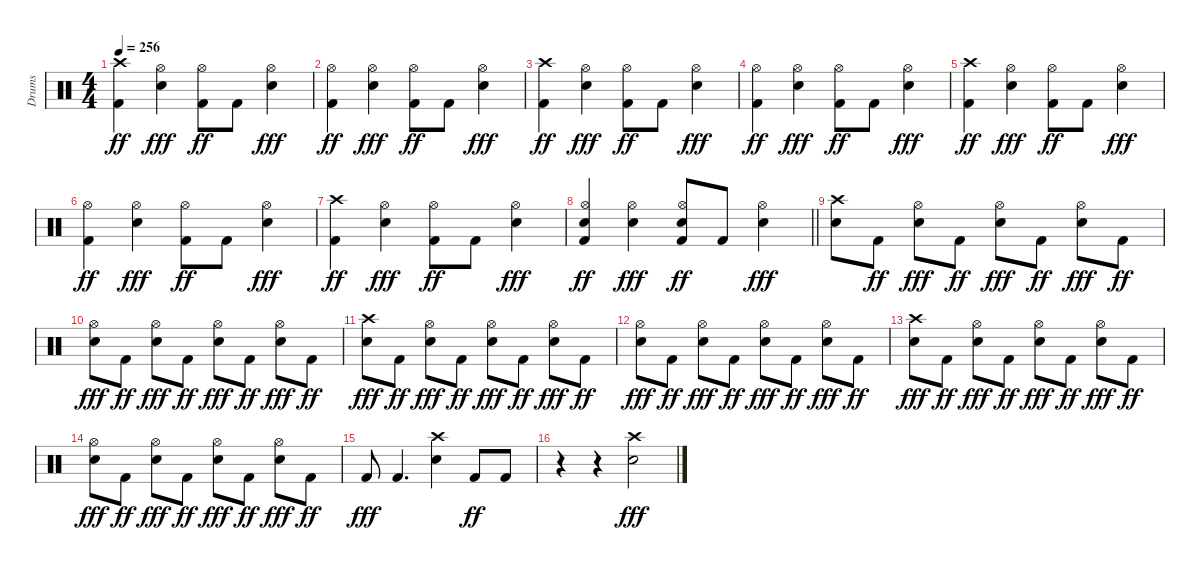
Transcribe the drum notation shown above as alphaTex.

\track ("Drums" "Drums") {instrument percussion}
\staff {score}
\articulation defaults
\ts (4 4)
\tempo 256
\clef neutral
\ks c
("Crash high (hit)" "Kick (hit) 2").4{dy ff} ("Hi-Hat (open)" "Electric Snare (hit)").4{dy fff} ("Hi-Hat (open)" "Kick (hit) 2").8{dy ff} "Kick (hit) 2".8 ("Hi-Hat (open)" "Electric Snare (hit)").4{dy fff} |
("Hi-Hat (open)" "Kick (hit) 2").4{dy ff} ("Hi-Hat (open)" "Electric Snare (hit)").4{dy fff} ("Hi-Hat (open)" "Kick (hit) 2").8{dy ff} "Kick (hit) 2".8 ("Hi-Hat (open)" "Electric Snare (hit)").4{dy fff} |
("Crash high (hit)" "Kick (hit) 2").4{dy ff} ("Hi-Hat (open)" "Electric Snare (hit)").4{dy fff} ("Hi-Hat (open)" "Kick (hit) 2").8{dy ff} "Kick (hit) 2".8 ("Hi-Hat (open)" "Electric Snare (hit)").4{dy fff} |
("Hi-Hat (open)" "Kick (hit) 2").4{dy ff} ("Hi-Hat (open)" "Electric Snare (hit)").4{dy fff} ("Hi-Hat (open)" "Kick (hit) 2").8{dy ff} "Kick (hit) 2".8 ("Hi-Hat (open)" "Electric Snare (hit)").4{dy fff} |
("Crash high (hit)" "Kick (hit) 2").4{dy ff} ("Hi-Hat (open)" "Electric Snare (hit)").4{dy fff} ("Hi-Hat (open)" "Kick (hit) 2").8{dy ff} "Kick (hit) 2".8 ("Hi-Hat (open)" "Electric Snare (hit)").4{dy fff} |
("Hi-Hat (open)" "Kick (hit) 2").4{dy ff} ("Hi-Hat (open)" "Electric Snare (hit)").4{dy fff} ("Hi-Hat (open)" "Kick (hit) 2").8{dy ff} "Kick (hit) 2".8 ("Hi-Hat (open)" "Electric Snare (hit)").4{dy fff} |
("Crash high (hit)" "Kick (hit) 2").4{dy ff} ("Hi-Hat (open)" "Electric Snare (hit)").4{dy fff} ("Hi-Hat (open)" "Kick (hit) 2").8{dy ff} "Kick (hit) 2".8 ("Hi-Hat (open)" "Electric Snare (hit)").4{dy fff} |
\barLineRight lightlight
("Hi-Hat (open)" "Electric Snare (hit)" "Kick (hit) 2").4{dy ff} ("Hi-Hat (open)" "Electric Snare (hit)").4{dy fff} ("Hi-Hat (open)" "Electric Snare (hit)" "Kick (hit) 2").8{dy ff} "Kick (hit) 2".8 ("Hi-Hat (open)" "Electric Snare (hit)").4{dy fff} |
("Crash high (hit)" "Electric Snare (hit)").8 "Kick (hit) 2".8{dy ff} ("Hi-Hat (open)" "Electric Snare (hit)").8{dy fff} "Kick (hit) 2".8{dy ff} ("Hi-Hat (open)" "Electric Snare (hit)").8{dy fff} "Kick (hit) 2".8{dy ff} ("Hi-Hat (open)" "Electric Snare (hit)").8{dy fff} "Kick (hit) 2".8{dy ff} |
("Hi-Hat (open)" "Electric Snare (hit)").8{dy fff} "Kick (hit) 2".8{dy ff} ("Hi-Hat (open)" "Electric Snare (hit)").8{dy fff} "Kick (hit) 2".8{dy ff} ("Hi-Hat (open)" "Electric Snare (hit)").8{dy fff} "Kick (hit) 2".8{dy ff} ("Hi-Hat (open)" "Electric Snare (hit)").8{dy fff} "Kick (hit) 2".8{dy ff} |
("Crash high (hit)" "Electric Snare (hit)").8{dy fff} "Kick (hit) 2".8{dy ff} ("Hi-Hat (open)" "Electric Snare (hit)").8{dy fff} "Kick (hit) 2".8{dy ff} ("Hi-Hat (open)" "Electric Snare (hit)").8{dy fff} "Kick (hit) 2".8{dy ff} ("Hi-Hat (open)" "Electric Snare (hit)").8{dy fff} "Kick (hit) 2".8{dy ff} |
("Hi-Hat (open)" "Electric Snare (hit)").8{dy fff} "Kick (hit) 2".8{dy ff} ("Hi-Hat (open)" "Electric Snare (hit)").8{dy fff} "Kick (hit) 2".8{dy ff} ("Hi-Hat (open)" "Electric Snare (hit)").8{dy fff} "Kick (hit) 2".8{dy ff} ("Hi-Hat (open)" "Electric Snare (hit)").8{dy fff} "Kick (hit) 2".8{dy ff} |
("Crash high (hit)" "Electric Snare (hit)").8{dy fff} "Kick (hit) 2".8{dy ff} ("Hi-Hat (open)" "Electric Snare (hit)").8{dy fff} "Kick (hit) 2".8{dy ff} ("Hi-Hat (open)" "Electric Snare (hit)").8{dy fff} "Kick (hit) 2".8{dy ff} ("Hi-Hat (open)" "Electric Snare (hit)").8{dy fff} "Kick (hit) 2".8{dy ff} |
("Hi-Hat (open)" "Electric Snare (hit)").8{dy fff} "Kick (hit) 2".8{dy ff} ("Hi-Hat (open)" "Electric Snare (hit)").8{dy fff} "Kick (hit) 2".8{dy ff} ("Hi-Hat (open)" "Electric Snare (hit)").8{dy fff} "Kick (hit) 2".8{dy ff} ("Hi-Hat (open)" "Electric Snare (hit)").8{dy fff} "Kick (hit) 2".8{dy ff} |
"Kick (hit) 2".8{dy fff} "Kick (hit) 2".4{d} ("Crash high (hit)" "Electric Snare (hit)").4 "Kick (hit) 2".8{dy ff} "Kick (hit) 2".8 |
r.4 r.4 ("Crash high (hit)" "Electric Snare (hit)").2{dy fff}
